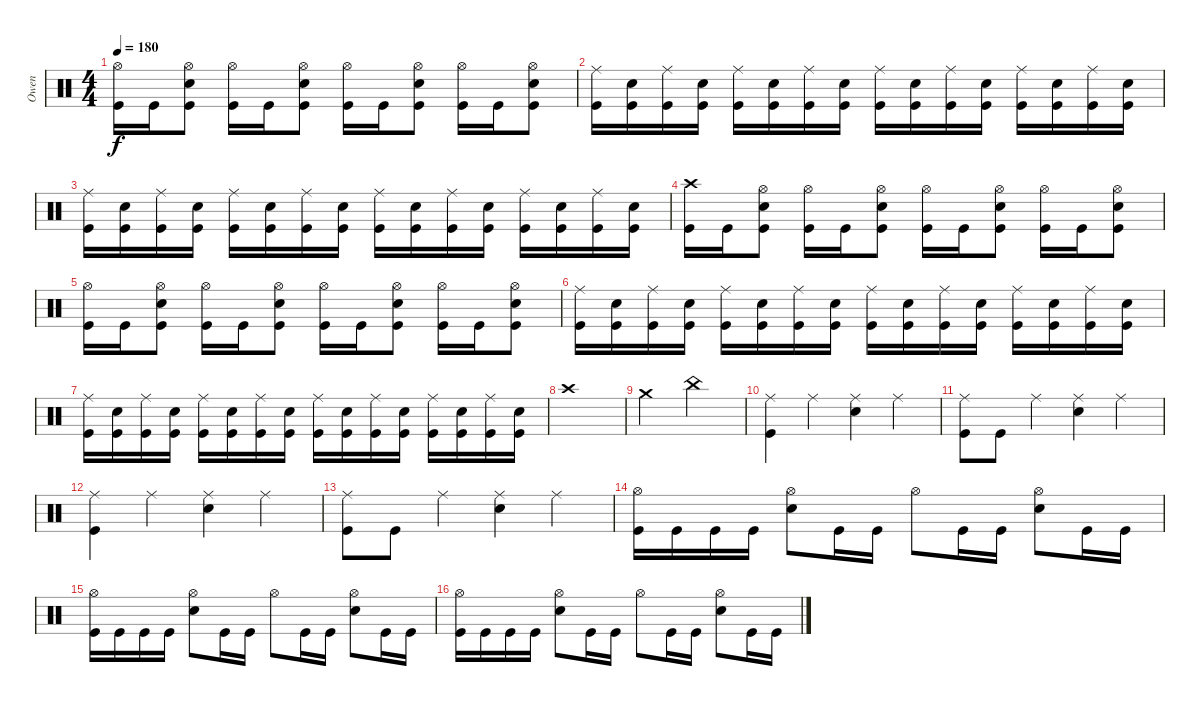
\track ("Owen" "Owen") {instrument percussion}
\staff {score}
\articulation defaults
\ts (4 4)
\tempo 180
\clef neutral
\ks c
("Hi-Hat (open)" "Kick (hit)").16{dy f} "Kick (hit)".16 ("Hi-Hat (open)" "Snare (hit) 2" "Kick (hit)").8 ("Hi-Hat (open)" "Kick (hit)").16 "Kick (hit)".16 ("Hi-Hat (open)" "Snare (hit) 2" "Kick (hit)").8 ("Hi-Hat (open)" "Kick (hit)").16 "Kick (hit)".16 ("Hi-Hat (open)" "Snare (hit) 2" "Kick (hit)").8 ("Hi-Hat (open)" "Kick (hit)").16 "Kick (hit)".16 ("Hi-Hat (open)" "Snare (hit) 2" "Kick (hit)").8 |
("Ride (middle)" "Kick (hit)").16 ("Snare (hit) 2" "Kick (hit)").16 ("Ride (middle)" "Kick (hit)").16 ("Snare (hit) 2" "Kick (hit)").16 ("Ride (middle)" "Kick (hit)").16 ("Snare (hit) 2" "Kick (hit)").16 ("Ride (middle)" "Kick (hit)").16 ("Snare (hit) 2" "Kick (hit)").16 ("Ride (middle)" "Kick (hit)").16 ("Snare (hit) 2" "Kick (hit)").16 ("Ride (middle)" "Kick (hit)").16 ("Snare (hit) 2" "Kick (hit)").16 ("Ride (middle)" "Kick (hit)").16 ("Snare (hit) 2" "Kick (hit)").16 ("Ride (middle)" "Kick (hit)").16 ("Snare (hit) 2" "Kick (hit)").16 |
("Ride (middle)" "Kick (hit)").16 ("Snare (hit) 2" "Kick (hit)").16 ("Ride (middle)" "Kick (hit)").16 ("Snare (hit) 2" "Kick (hit)").16 ("Ride (middle)" "Kick (hit)").16 ("Snare (hit) 2" "Kick (hit)").16 ("Ride (middle)" "Kick (hit)").16 ("Snare (hit) 2" "Kick (hit)").16 ("Ride (middle)" "Kick (hit)").16 ("Snare (hit) 2" "Kick (hit)").16 ("Ride (middle)" "Kick (hit)").16 ("Snare (hit) 2" "Kick (hit)").16 ("Ride (middle)" "Kick (hit)").16 ("Snare (hit) 2" "Kick (hit)").16 ("Ride (middle)" "Kick (hit)").16 ("Snare (hit) 2" "Kick (hit)").16 |
("Crash high (hit)" "Kick (hit)").16 "Kick (hit)".16 ("Hi-Hat (open)" "Snare (hit) 2" "Kick (hit)").8 ("Hi-Hat (open)" "Kick (hit)").16 "Kick (hit)".16 ("Hi-Hat (open)" "Snare (hit) 2" "Kick (hit)").8 ("Hi-Hat (open)" "Kick (hit)").16 "Kick (hit)".16 ("Hi-Hat (open)" "Snare (hit) 2" "Kick (hit)").8 ("Hi-Hat (open)" "Kick (hit)").16 "Kick (hit)".16 ("Hi-Hat (open)" "Snare (hit) 2" "Kick (hit)").8 |
("Hi-Hat (open)" "Kick (hit)").16 "Kick (hit)".16 ("Hi-Hat (open)" "Snare (hit) 2" "Kick (hit)").8 ("Hi-Hat (open)" "Kick (hit)").16 "Kick (hit)".16 ("Hi-Hat (open)" "Snare (hit) 2" "Kick (hit)").8 ("Hi-Hat (open)" "Kick (hit)").16 "Kick (hit)".16 ("Hi-Hat (open)" "Snare (hit) 2" "Kick (hit)").8 ("Hi-Hat (open)" "Kick (hit)").16 "Kick (hit)".16 ("Hi-Hat (open)" "Snare (hit) 2" "Kick (hit)").8 |
("Ride (middle)" "Kick (hit)").16 ("Snare (hit) 2" "Kick (hit)").16 ("Ride (middle)" "Kick (hit)").16 ("Snare (hit) 2" "Kick (hit)").16 ("Ride (middle)" "Kick (hit)").16 ("Snare (hit) 2" "Kick (hit)").16 ("Ride (middle)" "Kick (hit)").16 ("Snare (hit) 2" "Kick (hit)").16 ("Ride (middle)" "Kick (hit)").16 ("Snare (hit) 2" "Kick (hit)").16 ("Ride (middle)" "Kick (hit)").16 ("Snare (hit) 2" "Kick (hit)").16 ("Ride (middle)" "Kick (hit)").16 ("Snare (hit) 2" "Kick (hit)").16 ("Ride (middle)" "Kick (hit)").16 ("Snare (hit) 2" "Kick (hit)").16 |
("Ride (middle)" "Kick (hit)").16 ("Snare (hit) 2" "Kick (hit)").16 ("Ride (middle)" "Kick (hit)").16 ("Snare (hit) 2" "Kick (hit)").16 ("Ride (middle)" "Kick (hit)").16 ("Snare (hit) 2" "Kick (hit)").16 ("Ride (middle)" "Kick (hit)").16 ("Snare (hit) 2" "Kick (hit)").16 ("Ride (middle)" "Kick (hit)").16 ("Snare (hit) 2" "Kick (hit)").16 ("Ride (middle)" "Kick (hit)").16 ("Snare (hit) 2" "Kick (hit)").16 ("Ride (middle)" "Kick (hit)").16 ("Snare (hit) 2" "Kick (hit)").16 ("Ride (middle)" "Kick (hit)").16 ("Snare (hit) 2" "Kick (hit)").16 |
"Crash high (hit)".1 |
"Crash medium (hit)".2 "China (hit)".2 |
("Ride (middle)" "Kick (hit)").4 "Ride (middle)".4 ("Ride (middle)" "Snare (hit) 2").4 "Ride (middle)".4 |
("Ride (middle)" "Kick (hit)").8 "Kick (hit)".8 "Ride (middle)".4 ("Ride (middle)" "Snare (hit) 2").4 "Ride (middle)".4 |
("Ride (middle)" "Kick (hit)").4 "Ride (middle)".4 ("Ride (middle)" "Snare (hit) 2").4 "Ride (middle)".4 |
("Ride (middle)" "Kick (hit)").8 "Kick (hit)".8 "Ride (middle)".4 ("Ride (middle)" "Snare (hit) 2").4 "Ride (middle)".4 |
("Hi-Hat (open)" "Kick (hit)").16 "Kick (hit)".16 "Kick (hit)".16 "Kick (hit)".16 ("Hi-Hat (open)" "Snare (hit) 2").8 "Kick (hit)".16 "Kick (hit)".16 "Hi-Hat (open)".8 "Kick (hit)".16 "Kick (hit)".16 ("Hi-Hat (open)" "Snare (hit) 2").8 "Kick (hit)".16 "Kick (hit)".16 |
("Hi-Hat (open)" "Kick (hit)").16 "Kick (hit)".16 "Kick (hit)".16 "Kick (hit)".16 ("Hi-Hat (open)" "Snare (hit) 2").8 "Kick (hit)".16 "Kick (hit)".16 "Hi-Hat (open)".8 "Kick (hit)".16 "Kick (hit)".16 ("Hi-Hat (open)" "Snare (hit) 2").8 "Kick (hit)".16 "Kick (hit)".16 |
("Hi-Hat (open)" "Kick (hit)").16 "Kick (hit)".16 "Kick (hit)".16 "Kick (hit)".16 ("Hi-Hat (open)" "Snare (hit) 2").8 "Kick (hit)".16 "Kick (hit)".16 "Hi-Hat (open)".8 "Kick (hit)".16 "Kick (hit)".16 ("Hi-Hat (open)" "Snare (hit) 2").8 "Kick (hit)".16 "Kick (hit)".16
